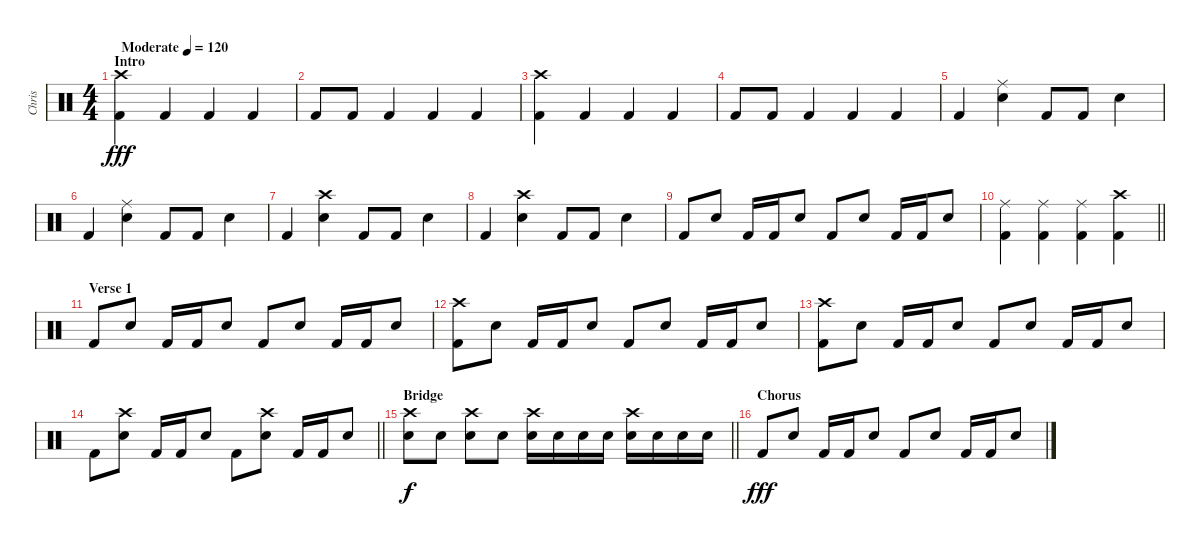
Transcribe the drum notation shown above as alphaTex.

\track ("Chris" "Chris") {instrument percussion}
\staff {score}
\articulation defaults
\ts (4 4)
\section ("" "Intro")
\tempo (120 "Moderate")
\clef neutral
\ks c
("Crash high (hit)" "Kick (hit) 2").4{dy fff} "Kick (hit) 2".4 "Kick (hit) 2".4 "Kick (hit) 2".4 |
"Kick (hit) 2".8 "Kick (hit) 2".8 "Kick (hit) 2".4 "Kick (hit) 2".4 "Kick (hit) 2".4 |
("Crash high (hit)" "Kick (hit) 2").4 "Kick (hit) 2".4 "Kick (hit) 2".4 "Kick (hit) 2".4 |
"Kick (hit) 2".8 "Kick (hit) 2".8 "Kick (hit) 2".4 "Kick (hit) 2".4 "Kick (hit) 2".4 |
"Kick (hit) 2".4 ("Ride (middle)" "Electric Snare (hit)").4 "Kick (hit) 2".8 "Kick (hit) 2".8 "Electric Snare (hit)".4 |
"Kick (hit) 2".4 ("Ride (middle)" "Electric Snare (hit)").4 "Kick (hit) 2".8 "Kick (hit) 2".8 "Electric Snare (hit)".4 |
"Kick (hit) 2".4 ("Electric Snare (hit)" "Crash high (hit)").4 "Kick (hit) 2".8 "Kick (hit) 2".8 "Electric Snare (hit)".4 |
"Kick (hit) 2".4 ("Electric Snare (hit)" "Crash high (hit)").4 "Kick (hit) 2".8 "Kick (hit) 2".8 "Electric Snare (hit)".4 |
"Kick (hit) 2".8 "Electric Snare (hit)".8 "Kick (hit) 2".16 "Kick (hit) 2".16 "Electric Snare (hit)".8 "Kick (hit) 2".8 "Electric Snare (hit)".8 "Kick (hit) 2".16 "Kick (hit) 2".16 "Electric Snare (hit)".8 |
\barLineRight lightlight
("Kick (hit) 2" "Ride (middle)").4 ("Kick (hit) 2" "Ride (middle)").4 ("Kick (hit) 2" "Ride (middle)").4 ("Crash high (hit)" "Kick (hit) 2").4 |
\section ("" "Verse 1")
"Kick (hit) 2".8 "Electric Snare (hit)".8 "Kick (hit) 2".16 "Kick (hit) 2".16 "Electric Snare (hit)".8 "Kick (hit) 2".8 "Electric Snare (hit)".8 "Kick (hit) 2".16 "Kick (hit) 2".16 "Electric Snare (hit)".8 |
("Kick (hit) 2" "Crash high (hit)").8 "Electric Snare (hit)".8 "Kick (hit) 2".16 "Kick (hit) 2".16 "Electric Snare (hit)".8 "Kick (hit) 2".8 "Electric Snare (hit)".8 "Kick (hit) 2".16 "Kick (hit) 2".16 "Electric Snare (hit)".8 |
("Kick (hit) 2" "Crash high (hit)").8 "Electric Snare (hit)".8 "Kick (hit) 2".16 "Kick (hit) 2".16 "Electric Snare (hit)".8 "Kick (hit) 2".8 "Electric Snare (hit)".8 "Kick (hit) 2".16 "Kick (hit) 2".16 "Electric Snare (hit)".8 |
\barLineRight lightlight "Kick (hit) 2".8
("Electric Snare (hit)" "Crash high (hit)").8 "Kick (hit) 2".16 "Kick (hit) 2".16 "Electric Snare (hit)".8 "Kick (hit) 2".8 ("Electric Snare (hit)" "Crash high (hit)").8 "Kick (hit) 2".16 "Kick (hit) 2".16 "Electric Snare (hit)".8 |
\section ("" "Bridge")
\barLineRight lightlight
("Electric Snare (hit)" "Crash high (hit)").8{dy f} "Electric Snare (hit)".8 ("Electric Snare (hit)" "Crash high (hit)").8 "Electric Snare (hit)".8 ("Electric Snare (hit)" "Crash high (hit)").16 "Electric Snare (hit)".16 "Electric Snare (hit)".16 "Electric Snare (hit)".16 ("Electric Snare (hit)" "Crash high (hit)").16 "Electric Snare (hit)".16 "Electric Snare (hit)".16 "Electric Snare (hit)".16 |
\section ("" "Chorus")
"Kick (hit) 2".8{dy fff} "Electric Snare (hit)".8 "Kick (hit) 2".16 "Kick (hit) 2".16 "Electric Snare (hit)".8 "Kick (hit) 2".8 "Electric Snare (hit)".8 "Kick (hit) 2".16 "Kick (hit) 2".16 "Electric Snare (hit)".8
